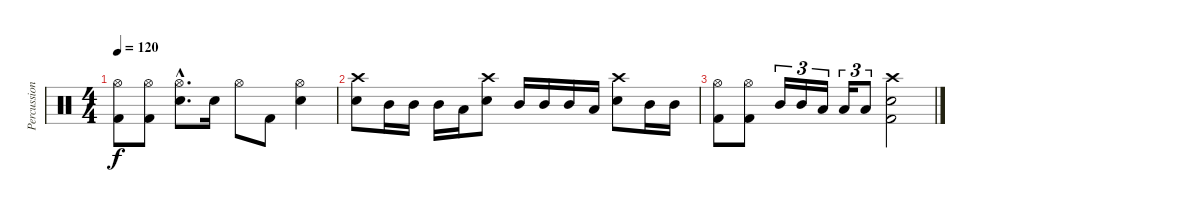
\track ("Percussion" "Percussion") {instrument percussion}
\staff {score}
\articulation defaults
\ts (4 4)
\tempo 120
\clef neutral
\ks c
("Hi-Hat (open)" "Kick (hit) 2").8{dy f} ("Hi-Hat (open)" "Kick (hit) 2").8 ("Hi-Hat (open)"{hac} "Snare (hit) 2"{hac}).8{d} "Snare (hit) 2".16 "Hi-Hat (open)".8 "Kick (hit) 2".8 ("Hi-Hat (open)" "Snare (hit) 2").4 |
("Crash high (hit)" "Snare (hit) 2").8 "Mid Tom (hit)".16 "Mid Tom (hit)".16 "Mid Tom (hit)".16 "Low Floor Tom (hit)".16 ("Crash high (hit)" "Snare (hit) 2").8 "Mid Tom (hit)".16 "Mid Tom (hit)".16 "Mid Tom (hit)".16 "Low Floor Tom (hit)".16 ("Crash high (hit)" "Snare (hit) 2").8 "Mid Tom (hit)".16 "Mid Tom (hit)".16 |
("Hi-Hat (open)" "Kick (hit) 2").8 ("Hi-Hat (open)" "Kick (hit) 2").8 "Mid Tom (hit)".16{tu (3 2)} "Mid Tom (hit)".16{tu (3 2)} "Low Tom (hit)".16{tu (3 2)} "Low Tom (hit)".16{tu (3 2)} "Low Tom (hit)".8{tu (3 2)} ("Crash high (hit)" "Snare (hit) 2" "Kick (hit) 2").2
